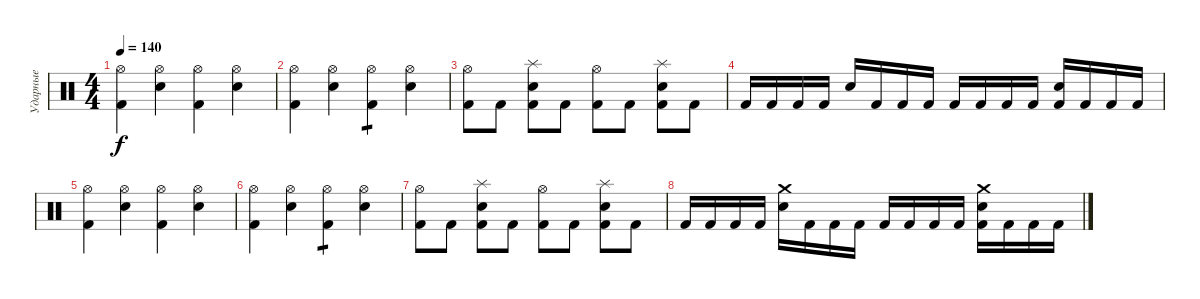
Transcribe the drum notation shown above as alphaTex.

\track ("Ударные" "Ударные") {instrument percussion}
\staff {score}
\articulation defaults
\ts (4 4)
\tempo 140
\clef neutral
\ks c
("Kick (hit) 2" "Hi-Hat (open)").4{dy f} ("Snare (hit) 2" "Hi-Hat (open)").4 ("Kick (hit) 2" "Hi-Hat (open)").4 ("Snare (hit) 2" "Hi-Hat (open)").4 |
("Kick (hit) 2" "Hi-Hat (open)").4 ("Snare (hit) 2" "Hi-Hat (open)").4 ("Kick (hit) 2" "Hi-Hat (open)").4{tp 1} ("Snare (hit) 2" "Hi-Hat (open)").4 |
("Kick (hit) 2" "Hi-Hat (open)").8 "Kick (hit) 2".8 ("Kick (hit) 2" "Snare (hit) 2" "Splash (hit)").8 "Kick (hit) 2".8 ("Kick (hit) 2" "Hi-Hat (open)").8 "Kick (hit) 2".8 ("Kick (hit) 2" "Splash (hit)" "Snare (hit) 2").8 "Kick (hit) 2".8 |
"Kick (hit) 2".16 "Kick (hit) 2".16 "Kick (hit) 2".16 "Kick (hit) 2".16 "Snare (hit) 2".16 "Kick (hit) 2".16 "Kick (hit) 2".16 "Kick (hit) 2".16 "Kick (hit) 2".16 "Kick (hit) 2".16 "Kick (hit) 2".16 "Kick (hit) 2".16 ("Snare (hit) 2" "Kick (hit) 2").16 "Kick (hit) 2".16 "Kick (hit) 2".16 "Kick (hit) 2".16 |
("Kick (hit) 2" "Hi-Hat (open)").4 ("Snare (hit) 2" "Hi-Hat (open)").4 ("Kick (hit) 2" "Hi-Hat (open)").4 ("Snare (hit) 2" "Hi-Hat (open)").4 |
("Kick (hit) 2" "Hi-Hat (open)").4 ("Snare (hit) 2" "Hi-Hat (open)").4 ("Kick (hit) 2" "Hi-Hat (open)").4{tp 1} ("Snare (hit) 2" "Hi-Hat (open)").4 |
("Kick (hit) 2" "Hi-Hat (open)").8 "Kick (hit) 2".8 ("Kick (hit) 2" "Snare (hit) 2" "Splash (hit)").8 "Kick (hit) 2".8 ("Kick (hit) 2" "Hi-Hat (open)").8 "Kick (hit) 2".8 ("Kick (hit) 2" "Splash (hit)" "Snare (hit) 2").8 "Kick (hit) 2".8 |
"Kick (hit) 2".16 "Kick (hit) 2".16 "Kick (hit) 2".16 "Kick (hit) 2".16 ("Crash medium (hit)" "Snare (hit) 2").16 "Kick (hit) 2".16 "Kick (hit) 2".16 "Kick (hit) 2".16 "Kick (hit) 2".16 "Kick (hit) 2".16 "Kick (hit) 2".16 "Kick (hit) 2".16 ("Snare (hit) 2" "Crash medium (hit)" "Kick (hit) 2").16 "Kick (hit) 2".16 "Kick (hit) 2".16 "Kick (hit) 2".16
